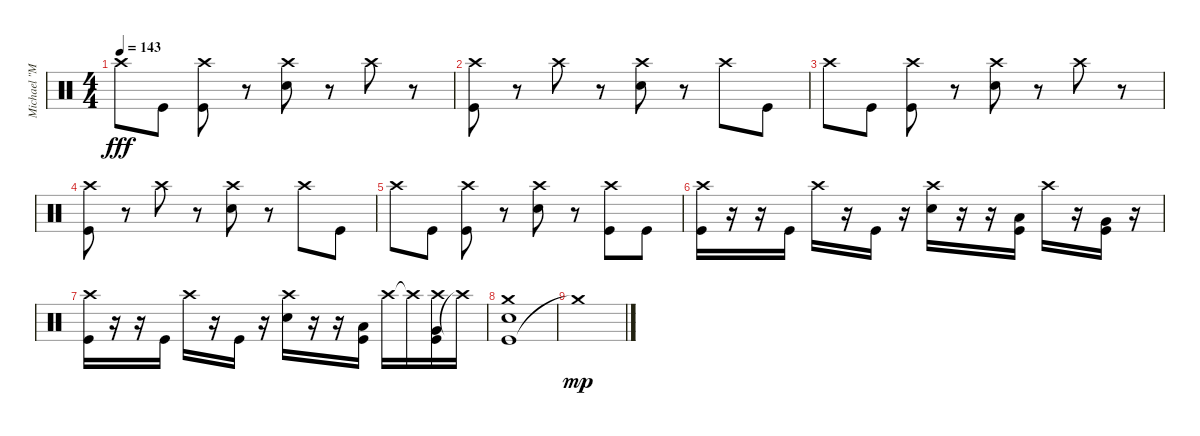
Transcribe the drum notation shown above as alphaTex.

\track ("Michael \"Moose\" Thomas" "Michael \"M") {instrument percussion}
\staff {score}
\articulation defaults
\ts (4 4)
\tempo 143
\clef neutral
\ks c "Crash high (hit)".8{dy fff} "Kick (hit)".8
("Kick (hit)" "Crash high (hit)").8 r.8 ("Snare (hit) 2" "Crash high (hit)").8 r.8 "Crash high (hit)".8 r.8 |
("Kick (hit)" "Crash high (hit)").8 r.8 "Crash high (hit)".8 r.8 ("Snare (hit) 2" "Crash high (hit)").8 r.8 "Crash high (hit)".8 "Kick (hit)".8 |
"Crash high (hit)".8 "Kick (hit)".8 ("Kick (hit)" "Crash high (hit)").8 r.8 ("Snare (hit) 2" "Crash high (hit)").8 r.8 "Crash high (hit)".8 r.8 |
("Kick (hit)" "Crash high (hit)").8 r.8 "Crash high (hit)".8 r.8 ("Snare (hit) 2" "Crash high (hit)").8 r.8 "Crash high (hit)".8 "Kick (hit)".8 |
"Crash high (hit)".8 "Kick (hit)".8 ("Kick (hit)" "Crash high (hit)").8 r.8 ("Snare (hit) 2" "Crash high (hit)").8 r.8 ("Crash high (hit)" "Kick (hit)").8 "Kick (hit)".8 |
("Kick (hit)" "Crash high (hit)").16 r.16 r.16 "Kick (hit)".16 "Crash high (hit)".16 r.16 "Kick (hit)".16 r.16 ("Snare (hit) 2" "Crash high (hit)").16 r.16 r.16 ("Kick (hit)" "Low Tom (hit)").16 "Crash high (hit)".16 r.16 ("Kick (hit)" "Very Low Tom (hit)").16 r.16 |
("Kick (hit)" "Crash high (hit)").16 r.16 r.16 "Kick (hit)".16 "Crash high (hit)".16 r.16 "Kick (hit)".16 r.16 ("Snare (hit) 2" "Crash high (hit)").16 r.16 r.16 ("Kick (hit)" "Low Tom (hit)").16 "Crash high (hit)".16 "Crash high (hit)"{t}.16 ("Kick (hit)" "Very Low Tom (hit)" "Crash high (hit)").16 "Crash high (hit)"{t}.16 |
("Kick (hit)" "Snare (hit) 2" "Crash medium (hit)").1 |
"Crash medium (hit)"{t}.1{dy mp}
